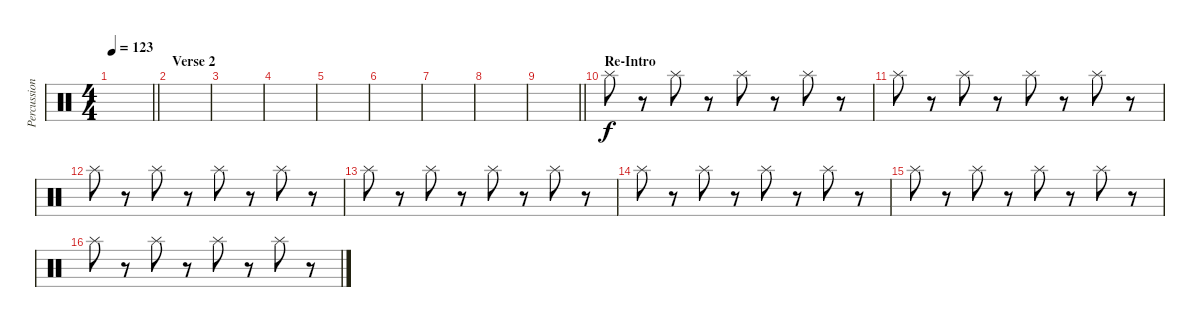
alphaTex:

\track ("Percussion 2" "Percussion") {instrument percussion}
\staff {score}
\articulation defaults
\ts (4 4)
\tempo 123
\clef neutral
\barLineRight lightlight
\ks c
|
\section ("" "Verse 2")
|
|
|
|
|
|
|
\barLineRight lightlight
|
\section ("" "Re-Intro")
"Splash (hit)".8 r.8 "Splash (hit)".8 r.8 "Splash (hit)".8 r.8 "Splash (hit)".8 r.8 |
"Splash (hit)".8 r.8 "Splash (hit)".8 r.8 "Splash (hit)".8 r.8 "Splash (hit)".8 r.8 |
"Splash (hit)".8 r.8 "Splash (hit)".8 r.8 "Splash (hit)".8 r.8 "Splash (hit)".8 r.8 |
"Splash (hit)".8 r.8 "Splash (hit)".8 r.8 "Splash (hit)".8 r.8 "Splash (hit)".8 r.8 |
"Splash (hit)".8 r.8 "Splash (hit)".8 r.8 "Splash (hit)".8 r.8 "Splash (hit)".8 r.8 |
"Splash (hit)".8 r.8 "Splash (hit)".8 r.8 "Splash (hit)".8 r.8 "Splash (hit)".8 r.8 |
"Splash (hit)".8 r.8 "Splash (hit)".8 r.8 "Splash (hit)".8 r.8 "Splash (hit)".8 r.8
